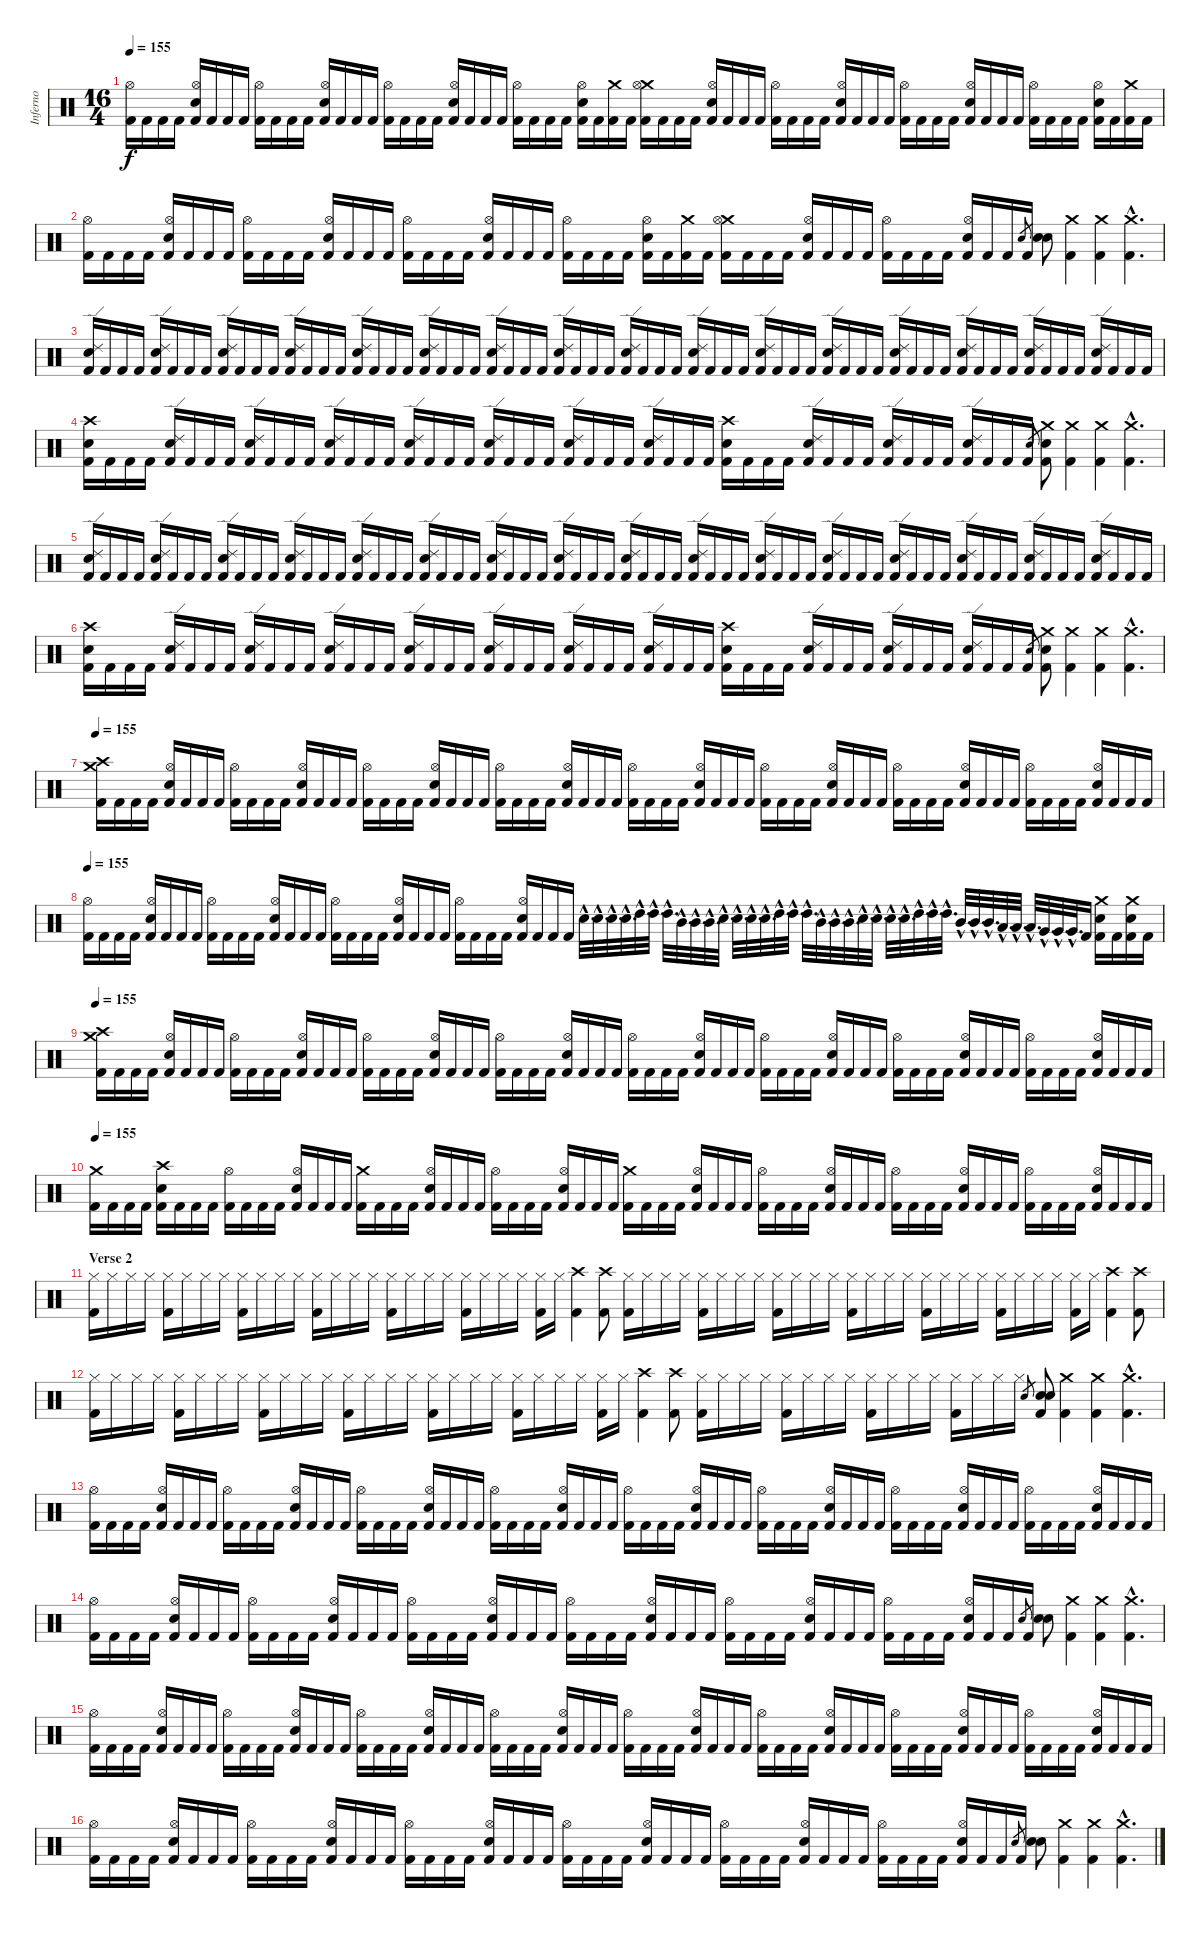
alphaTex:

\track ("Inferno" "Inferno") {instrument percussion}
\staff {score}
\articulation defaults
\ts (16 4)
\tempo 155
\clef neutral
\ks c
("Kick (hit) 2" "Hi-Hat (open)").16{dy f} "Kick (hit) 2".16 "Kick (hit) 2".16 "Kick (hit) 2".16 ("Kick (hit) 2" "Hi-Hat (open)" "Electric Snare (hit)").16 "Kick (hit) 2".16 "Kick (hit) 2".16 "Kick (hit) 2".16 ("Kick (hit) 2" "Hi-Hat (open)").16 "Kick (hit) 2".16 "Kick (hit) 2".16 "Kick (hit) 2".16 ("Kick (hit) 2" "Hi-Hat (open)" "Electric Snare (hit)").16 "Kick (hit) 2".16 "Kick (hit) 2".16 "Kick (hit) 2".16 ("Kick (hit) 2" "Hi-Hat (open)").16 "Kick (hit) 2".16 "Kick (hit) 2".16 "Kick (hit) 2".16 ("Kick (hit) 2" "Hi-Hat (open)" "Electric Snare (hit)").16 "Kick (hit) 2".16 "Kick (hit) 2".16 "Kick (hit) 2".16 ("Kick (hit) 2" "Hi-Hat (open)").16 "Kick (hit) 2".16 "Kick (hit) 2".16 "Kick (hit) 2".16 ("Kick (hit) 2" "Hi-Hat (open)" "Electric Snare (hit)").16 "Kick (hit) 2".16 ("Kick (hit) 2" "Crash medium (hit)").16 "Kick (hit) 2".16 ("Kick (hit) 2" "Crash medium (hit)" "Hi-Hat (open)").16 "Kick (hit) 2".16 "Kick (hit) 2".16 "Kick (hit) 2".16 ("Kick (hit) 2" "Hi-Hat (open)" "Electric Snare (hit)").16 "Kick (hit) 2".16 "Kick (hit) 2".16 "Kick (hit) 2".16 ("Kick (hit) 2" "Hi-Hat (open)").16 "Kick (hit) 2".16 "Kick (hit) 2".16 "Kick (hit) 2".16 ("Kick (hit) 2" "Hi-Hat (open)" "Electric Snare (hit)").16 "Kick (hit) 2".16 "Kick (hit) 2".16 "Kick (hit) 2".16 ("Kick (hit) 2" "Hi-Hat (open)").16 "Kick (hit) 2".16 "Kick (hit) 2".16 "Kick (hit) 2".16 ("Kick (hit) 2" "Hi-Hat (open)" "Electric Snare (hit)").16 "Kick (hit) 2".16 "Kick (hit) 2".16 "Kick (hit) 2".16 ("Kick (hit) 2" "Hi-Hat (open)").16 "Kick (hit) 2".16 "Kick (hit) 2".16 "Kick (hit) 2".16 ("Kick (hit) 2" "Hi-Hat (open)" "Electric Snare (hit)").16 "Kick (hit) 2".16 ("Kick (hit) 2" "Crash medium (hit)").16 "Kick (hit) 2".16 |
("Kick (hit) 2" "Hi-Hat (open)").16 "Kick (hit) 2".16 "Kick (hit) 2".16 "Kick (hit) 2".16 ("Kick (hit) 2" "Hi-Hat (open)" "Electric Snare (hit)").16 "Kick (hit) 2".16 "Kick (hit) 2".16 "Kick (hit) 2".16 ("Kick (hit) 2" "Hi-Hat (open)").16 "Kick (hit) 2".16 "Kick (hit) 2".16 "Kick (hit) 2".16 ("Kick (hit) 2" "Hi-Hat (open)" "Electric Snare (hit)").16 "Kick (hit) 2".16 "Kick (hit) 2".16 "Kick (hit) 2".16 ("Kick (hit) 2" "Hi-Hat (open)").16 "Kick (hit) 2".16 "Kick (hit) 2".16 "Kick (hit) 2".16 ("Kick (hit) 2" "Hi-Hat (open)" "Electric Snare (hit)").16 "Kick (hit) 2".16 "Kick (hit) 2".16 "Kick (hit) 2".16 ("Kick (hit) 2" "Hi-Hat (open)").16 "Kick (hit) 2".16 "Kick (hit) 2".16 "Kick (hit) 2".16 ("Kick (hit) 2" "Hi-Hat (open)" "Electric Snare (hit)").16 "Kick (hit) 2".16 ("Kick (hit) 2" "Crash medium (hit)").16 "Kick (hit) 2".16 ("Kick (hit) 2" "Crash medium (hit)" "Hi-Hat (open)").16 "Kick (hit) 2".16 "Kick (hit) 2".16 "Kick (hit) 2".16 ("Kick (hit) 2" "Hi-Hat (open)" "Electric Snare (hit)").16 "Kick (hit) 2".16 "Kick (hit) 2".16 "Kick (hit) 2".16 ("Kick (hit) 2" "Hi-Hat (open)").16 "Kick (hit) 2".16 "Kick (hit) 2".16 "Kick (hit) 2".16 ("Kick (hit) 2" "Hi-Hat (open)" "Electric Snare (hit)").16 "Kick (hit) 2".16 "Kick (hit) 2".16 "Kick (hit) 2".16 "Electric Snare (hit)".8{gr} ("Electric Snare (hit)" "Electric Snare (hit)").8 ("Crash medium (hit)" "Kick (hit) 2").4 ("Kick (hit) 2" "Crash medium (hit)").4 ("Kick (hit) 2"{hac} "Crash medium (hit)"{hac}).4{d} |
("Kick (hit) 2" "Electric Snare (hit)" "Ride (edge) 2").16 "Kick (hit) 2".16 "Kick (hit) 2".16 "Kick (hit) 2".16 ("Kick (hit) 2" "Ride (edge) 2" "Electric Snare (hit)").16 "Kick (hit) 2".16 "Kick (hit) 2".16 "Kick (hit) 2".16 ("Kick (hit) 2" "Electric Snare (hit)" "Ride (edge) 2").16 "Kick (hit) 2".16 "Kick (hit) 2".16 "Kick (hit) 2".16 ("Kick (hit) 2" "Ride (edge) 2" "Electric Snare (hit)").16 "Kick (hit) 2".16 "Kick (hit) 2".16 "Kick (hit) 2".16 ("Kick (hit) 2" "Electric Snare (hit)" "Ride (edge) 2").16 "Kick (hit) 2".16 "Kick (hit) 2".16 "Kick (hit) 2".16 ("Kick (hit) 2" "Ride (edge) 2" "Electric Snare (hit)").16 "Kick (hit) 2".16 "Kick (hit) 2".16 "Kick (hit) 2".16 ("Kick (hit) 2" "Electric Snare (hit)" "Ride (edge) 2").16 "Kick (hit) 2".16 "Kick (hit) 2".16 "Kick (hit) 2".16 ("Kick (hit) 2" "Ride (edge) 2" "Electric Snare (hit)").16 "Kick (hit) 2".16 "Kick (hit) 2".16 "Kick (hit) 2".16 ("Kick (hit) 2" "Electric Snare (hit)" "Ride (edge) 2").16 "Kick (hit) 2".16 "Kick (hit) 2".16 "Kick (hit) 2".16 ("Kick (hit) 2" "Ride (edge) 2" "Electric Snare (hit)").16 "Kick (hit) 2".16 "Kick (hit) 2".16 "Kick (hit) 2".16 ("Kick (hit) 2" "Electric Snare (hit)" "Ride (edge) 2").16 "Kick (hit) 2".16 "Kick (hit) 2".16 "Kick (hit) 2".16 ("Kick (hit) 2" "Ride (edge) 2" "Electric Snare (hit)").16 "Kick (hit) 2".16 "Kick (hit) 2".16 "Kick (hit) 2".16 ("Kick (hit) 2" "Electric Snare (hit)" "Ride (edge) 2").16 "Kick (hit) 2".16 "Kick (hit) 2".16 "Kick (hit) 2".16 ("Kick (hit) 2" "Ride (edge) 2" "Electric Snare (hit)").16 "Kick (hit) 2".16 "Kick (hit) 2".16 "Kick (hit) 2".16 ("Kick (hit) 2" "Electric Snare (hit)" "Ride (edge) 2").16 "Kick (hit) 2".16 "Kick (hit) 2".16 "Kick (hit) 2".16 ("Kick (hit) 2" "Ride (edge) 2" "Electric Snare (hit)").16 "Kick (hit) 2".16 "Kick (hit) 2".16 "Kick (hit) 2".16 |
("Kick (hit) 2" "Electric Snare (hit)" "Crash high (hit)").16 "Kick (hit) 2".16 "Kick (hit) 2".16 "Kick (hit) 2".16 ("Kick (hit) 2" "Ride (edge) 2" "Electric Snare (hit)").16 "Kick (hit) 2".16 "Kick (hit) 2".16 "Kick (hit) 2".16 ("Kick (hit) 2" "Electric Snare (hit)" "Ride (edge) 2").16 "Kick (hit) 2".16 "Kick (hit) 2".16 "Kick (hit) 2".16 ("Kick (hit) 2" "Ride (edge) 2" "Electric Snare (hit)").16 "Kick (hit) 2".16 "Kick (hit) 2".16 "Kick (hit) 2".16 ("Kick (hit) 2" "Electric Snare (hit)" "Ride (edge) 2").16 "Kick (hit) 2".16 "Kick (hit) 2".16 "Kick (hit) 2".16 ("Kick (hit) 2" "Ride (edge) 2" "Electric Snare (hit)").16 "Kick (hit) 2".16 "Kick (hit) 2".16 "Kick (hit) 2".16 ("Kick (hit) 2" "Electric Snare (hit)" "Ride (edge) 2").16 "Kick (hit) 2".16 "Kick (hit) 2".16 "Kick (hit) 2".16 ("Kick (hit) 2" "Ride (edge) 2" "Electric Snare (hit)").16 "Kick (hit) 2".16 "Kick (hit) 2".16 "Kick (hit) 2".16 ("Kick (hit) 2" "Electric Snare (hit)" "Crash high (hit)").16 "Kick (hit) 2".16 "Kick (hit) 2".16 "Kick (hit) 2".16 ("Kick (hit) 2" "Ride (edge) 2" "Electric Snare (hit)").16 "Kick (hit) 2".16 "Kick (hit) 2".16 "Kick (hit) 2".16 ("Kick (hit) 2" "Electric Snare (hit)" "Ride (edge) 2").16 "Kick (hit) 2".16 "Kick (hit) 2".16 "Kick (hit) 2".16 ("Kick (hit) 2" "Ride (edge) 2" "Electric Snare (hit)").16 "Kick (hit) 2".16 "Kick (hit) 2".16 "Kick (hit) 2".16 "Electric Snare (hit)".8{gr} ("Crash medium (hit)" "Electric Snare (hit)" "Kick (hit) 2").8 ("Crash medium (hit)" "Kick (hit) 2").4 ("Crash medium (hit)" "Kick (hit) 2").4 ("Crash medium (hit)"{hac} "Kick (hit) 2"{hac}).4{d} |
("Kick (hit) 2" "Electric Snare (hit)" "Ride (edge) 2").16 "Kick (hit) 2".16 "Kick (hit) 2".16 "Kick (hit) 2".16 ("Kick (hit) 2" "Ride (edge) 2" "Electric Snare (hit)").16 "Kick (hit) 2".16 "Kick (hit) 2".16 "Kick (hit) 2".16 ("Kick (hit) 2" "Electric Snare (hit)" "Ride (edge) 2").16 "Kick (hit) 2".16 "Kick (hit) 2".16 "Kick (hit) 2".16 ("Kick (hit) 2" "Ride (edge) 2" "Electric Snare (hit)").16 "Kick (hit) 2".16 "Kick (hit) 2".16 "Kick (hit) 2".16 ("Kick (hit) 2" "Electric Snare (hit)" "Ride (edge) 2").16 "Kick (hit) 2".16 "Kick (hit) 2".16 "Kick (hit) 2".16 ("Kick (hit) 2" "Ride (edge) 2" "Electric Snare (hit)").16 "Kick (hit) 2".16 "Kick (hit) 2".16 "Kick (hit) 2".16 ("Kick (hit) 2" "Electric Snare (hit)" "Ride (edge) 2").16 "Kick (hit) 2".16 "Kick (hit) 2".16 "Kick (hit) 2".16 ("Kick (hit) 2" "Ride (edge) 2" "Electric Snare (hit)").16 "Kick (hit) 2".16 "Kick (hit) 2".16 "Kick (hit) 2".16 ("Kick (hit) 2" "Electric Snare (hit)" "Ride (edge) 2").16 "Kick (hit) 2".16 "Kick (hit) 2".16 "Kick (hit) 2".16 ("Kick (hit) 2" "Ride (edge) 2" "Electric Snare (hit)").16 "Kick (hit) 2".16 "Kick (hit) 2".16 "Kick (hit) 2".16 ("Kick (hit) 2" "Electric Snare (hit)" "Ride (edge) 2").16 "Kick (hit) 2".16 "Kick (hit) 2".16 "Kick (hit) 2".16 ("Kick (hit) 2" "Ride (edge) 2" "Electric Snare (hit)").16 "Kick (hit) 2".16 "Kick (hit) 2".16 "Kick (hit) 2".16 ("Kick (hit) 2" "Electric Snare (hit)" "Ride (edge) 2").16 "Kick (hit) 2".16 "Kick (hit) 2".16 "Kick (hit) 2".16 ("Kick (hit) 2" "Ride (edge) 2" "Electric Snare (hit)").16 "Kick (hit) 2".16 "Kick (hit) 2".16 "Kick (hit) 2".16 ("Kick (hit) 2" "Electric Snare (hit)" "Ride (edge) 2").16 "Kick (hit) 2".16 "Kick (hit) 2".16 "Kick (hit) 2".16 ("Kick (hit) 2" "Ride (edge) 2" "Electric Snare (hit)").16 "Kick (hit) 2".16 "Kick (hit) 2".16 "Kick (hit) 2".16 |
("Kick (hit) 2" "Electric Snare (hit)" "Crash high (hit)").16 "Kick (hit) 2".16 "Kick (hit) 2".16 "Kick (hit) 2".16 ("Kick (hit) 2" "Ride (edge) 2" "Electric Snare (hit)").16 "Kick (hit) 2".16 "Kick (hit) 2".16 "Kick (hit) 2".16 ("Kick (hit) 2" "Electric Snare (hit)" "Ride (edge) 2").16 "Kick (hit) 2".16 "Kick (hit) 2".16 "Kick (hit) 2".16 ("Kick (hit) 2" "Ride (edge) 2" "Electric Snare (hit)").16 "Kick (hit) 2".16 "Kick (hit) 2".16 "Kick (hit) 2".16 ("Kick (hit) 2" "Electric Snare (hit)" "Ride (edge) 2").16 "Kick (hit) 2".16 "Kick (hit) 2".16 "Kick (hit) 2".16 ("Kick (hit) 2" "Ride (edge) 2" "Electric Snare (hit)").16 "Kick (hit) 2".16 "Kick (hit) 2".16 "Kick (hit) 2".16 ("Kick (hit) 2" "Electric Snare (hit)" "Ride (edge) 2").16 "Kick (hit) 2".16 "Kick (hit) 2".16 "Kick (hit) 2".16 ("Kick (hit) 2" "Ride (edge) 2" "Electric Snare (hit)").16 "Kick (hit) 2".16 "Kick (hit) 2".16 "Kick (hit) 2".16 ("Kick (hit) 2" "Electric Snare (hit)" "Crash high (hit)").16 "Kick (hit) 2".16 "Kick (hit) 2".16 "Kick (hit) 2".16 ("Kick (hit) 2" "Ride (edge) 2" "Electric Snare (hit)").16 "Kick (hit) 2".16 "Kick (hit) 2".16 "Kick (hit) 2".16 ("Kick (hit) 2" "Electric Snare (hit)" "Ride (edge) 2").16 "Kick (hit) 2".16 "Kick (hit) 2".16 "Kick (hit) 2".16 ("Kick (hit) 2" "Ride (edge) 2" "Electric Snare (hit)").16 "Kick (hit) 2".16 "Kick (hit) 2".16 "Kick (hit) 2".16 "Electric Snare (hit)".8{gr} ("Crash medium (hit)" "Electric Snare (hit)" "Kick (hit) 2").8 ("Crash medium (hit)" "Kick (hit) 2").4 ("Crash medium (hit)" "Kick (hit) 2").4 ("Crash medium (hit)"{hac} "Kick (hit) 2"{hac}).4{d} |
\tempo 155
("Kick (hit) 2" "Crash medium (hit)" "Crash high (hit)").16 "Kick (hit) 2".16 "Kick (hit) 2".16 "Kick (hit) 2".16 ("Kick (hit) 2" "Hi-Hat (open)" "Electric Snare (hit)").16 "Kick (hit) 2".16 "Kick (hit) 2".16 "Kick (hit) 2".16 ("Kick (hit) 2" "Hi-Hat (open)").16 "Kick (hit) 2".16 "Kick (hit) 2".16 "Kick (hit) 2".16 ("Kick (hit) 2" "Hi-Hat (open)" "Electric Snare (hit)").16 "Kick (hit) 2".16 "Kick (hit) 2".16 "Kick (hit) 2".16 ("Kick (hit) 2" "Hi-Hat (open)").16 "Kick (hit) 2".16 "Kick (hit) 2".16 "Kick (hit) 2".16 ("Kick (hit) 2" "Hi-Hat (open)" "Electric Snare (hit)").16 "Kick (hit) 2".16 "Kick (hit) 2".16 "Kick (hit) 2".16 ("Kick (hit) 2" "Hi-Hat (open)").16 "Kick (hit) 2".16 "Kick (hit) 2".16 "Kick (hit) 2".16 ("Kick (hit) 2" "Hi-Hat (open)" "Electric Snare (hit)").16 "Kick (hit) 2".16 "Kick (hit) 2".16 "Kick (hit) 2".16 ("Kick (hit) 2" "Hi-Hat (open)").16 "Kick (hit) 2".16 "Kick (hit) 2".16 "Kick (hit) 2".16 ("Kick (hit) 2" "Hi-Hat (open)" "Electric Snare (hit)").16 "Kick (hit) 2".16 "Kick (hit) 2".16 "Kick (hit) 2".16 ("Kick (hit) 2" "Hi-Hat (open)").16 "Kick (hit) 2".16 "Kick (hit) 2".16 "Kick (hit) 2".16 ("Kick (hit) 2" "Hi-Hat (open)" "Electric Snare (hit)").16 "Kick (hit) 2".16 "Kick (hit) 2".16 "Kick (hit) 2".16 ("Kick (hit) 2" "Hi-Hat (open)").16 "Kick (hit) 2".16 "Kick (hit) 2".16 "Kick (hit) 2".16 ("Kick (hit) 2" "Hi-Hat (open)" "Electric Snare (hit)").16 "Kick (hit) 2".16 "Kick (hit) 2".16 "Kick (hit) 2".16 ("Kick (hit) 2" "Hi-Hat (open)").16 "Kick (hit) 2".16 "Kick (hit) 2".16 "Kick (hit) 2".16 ("Kick (hit) 2" "Hi-Hat (open)" "Electric Snare (hit)").16 "Kick (hit) 2".16 "Kick (hit) 2".16 "Kick (hit) 2".16 |
\tempo 155
("Kick (hit) 2" "Hi-Hat (open)").16 "Kick (hit) 2".16 "Kick (hit) 2".16 "Kick (hit) 2".16 ("Kick (hit) 2" "Hi-Hat (open)" "Electric Snare (hit)").16 "Kick (hit) 2".16 "Kick (hit) 2".16 "Kick (hit) 2".16 ("Kick (hit) 2" "Hi-Hat (open)").16 "Kick (hit) 2".16 "Kick (hit) 2".16 "Kick (hit) 2".16 ("Kick (hit) 2" "Hi-Hat (open)" "Electric Snare (hit)").16 "Kick (hit) 2".16 "Kick (hit) 2".16 "Kick (hit) 2".16 ("Kick (hit) 2" "Hi-Hat (open)").16 "Kick (hit) 2".16 "Kick (hit) 2".16 "Kick (hit) 2".16 ("Kick (hit) 2" "Hi-Hat (open)" "Electric Snare (hit)").16 "Kick (hit) 2".16 "Kick (hit) 2".16 "Kick (hit) 2".16 ("Kick (hit) 2" "Hi-Hat (open)").16 "Kick (hit) 2".16 "Kick (hit) 2".16 "Kick (hit) 2".16 ("Kick (hit) 2" "Hi-Hat (open)" "Electric Snare (hit)").16 "Kick (hit) 2".16 "Kick (hit) 2".16 "Kick (hit) 2".16 "Electric Snare (hit)"{hac}.32{d} "Electric Snare (hit)"{hac}.32{d} "Electric Snare (hit)"{hac}.32{d} "Electric Snare (hit)"{hac}.32{d} "High Tom (hit)"{hac}.32{d} "High Tom (hit)"{hac}.32{d} "High Tom (hit)"{hac}.32{d} "Mid Tom (hit)"{hac}.32{d} "Mid Tom (hit)"{hac}.32{d} "Mid Tom (hit)"{hac}.32{d} "Electric Snare (hit)"{hac}.32{d} "Electric Snare (hit)"{hac}.32{d} "Electric Snare (hit)"{hac}.32{d} "Electric Snare (hit)"{hac}.32{d} "High Tom (hit)"{hac}.32{d} "High Tom (hit)"{hac}.32{d} "High Tom (hit)"{hac}.32{d} "Mid Tom (hit)"{hac}.32{d} "Mid Tom (hit)"{hac}.32{d} "Mid Tom (hit)"{hac}.32{d} "Electric Snare (hit)"{hac}.32{d} "Electric Snare (hit)"{hac}.32{d} "Electric Snare (hit)"{hac}.32{d} "Electric Snare (hit)"{hac}.32{d} "High Tom (hit)"{hac}.32{d} "High Tom (hit)"{hac}.32{d} "High Tom (hit)"{hac}.32{d} "Mid Tom (hit)"{hac}.32{d} "Mid Tom (hit)"{hac}.32{d} "Mid Tom (hit)"{hac}.32{d} "Low Tom (hit)"{hac}.32{d} "Low Tom (hit)"{hac}.32{d} "Low Tom (hit)"{hac}.32{d} "Very Low Tom (hit)"{hac}.32{d} "Very Low Tom (hit)"{hac}.32{d} "Very Low Tom (hit)"{hac}.32{d} "Kick (hit) 2".16 ("Electric Snare (hit)" "Crash medium (hit)" "Kick (hit) 2").16 "Kick (hit) 2".16 ("Electric Snare (hit)" "Crash medium (hit)" "Kick (hit) 2").16 "Kick (hit) 2".16 |
\tempo 155
("Kick (hit) 2" "Crash medium (hit)" "Crash high (hit)").16 "Kick (hit) 2".16 "Kick (hit) 2".16 "Kick (hit) 2".16 ("Kick (hit) 2" "Hi-Hat (open)" "Electric Snare (hit)").16 "Kick (hit) 2".16 "Kick (hit) 2".16 "Kick (hit) 2".16 ("Kick (hit) 2" "Hi-Hat (open)").16 "Kick (hit) 2".16 "Kick (hit) 2".16 "Kick (hit) 2".16 ("Kick (hit) 2" "Hi-Hat (open)" "Electric Snare (hit)").16 "Kick (hit) 2".16 "Kick (hit) 2".16 "Kick (hit) 2".16 ("Kick (hit) 2" "Hi-Hat (open)").16 "Kick (hit) 2".16 "Kick (hit) 2".16 "Kick (hit) 2".16 ("Kick (hit) 2" "Hi-Hat (open)" "Electric Snare (hit)").16 "Kick (hit) 2".16 "Kick (hit) 2".16 "Kick (hit) 2".16 ("Kick (hit) 2" "Hi-Hat (open)").16 "Kick (hit) 2".16 "Kick (hit) 2".16 "Kick (hit) 2".16 ("Kick (hit) 2" "Hi-Hat (open)" "Electric Snare (hit)").16 "Kick (hit) 2".16 "Kick (hit) 2".16 "Kick (hit) 2".16 ("Kick (hit) 2" "Hi-Hat (open)").16 "Kick (hit) 2".16 "Kick (hit) 2".16 "Kick (hit) 2".16 ("Kick (hit) 2" "Hi-Hat (open)" "Electric Snare (hit)").16 "Kick (hit) 2".16 "Kick (hit) 2".16 "Kick (hit) 2".16 ("Kick (hit) 2" "Hi-Hat (open)").16 "Kick (hit) 2".16 "Kick (hit) 2".16 "Kick (hit) 2".16 ("Kick (hit) 2" "Hi-Hat (open)" "Electric Snare (hit)").16 "Kick (hit) 2".16 "Kick (hit) 2".16 "Kick (hit) 2".16 ("Kick (hit) 2" "Hi-Hat (open)").16 "Kick (hit) 2".16 "Kick (hit) 2".16 "Kick (hit) 2".16 ("Kick (hit) 2" "Hi-Hat (open)" "Electric Snare (hit)").16 "Kick (hit) 2".16 "Kick (hit) 2".16 "Kick (hit) 2".16 ("Kick (hit) 2" "Hi-Hat (open)").16 "Kick (hit) 2".16 "Kick (hit) 2".16 "Kick (hit) 2".16 ("Kick (hit) 2" "Hi-Hat (open)" "Electric Snare (hit)").16 "Kick (hit) 2".16 "Kick (hit) 2".16 "Kick (hit) 2".16 |
\tempo 155
("Kick (hit) 2" "Crash medium (hit)").16 "Kick (hit) 2".16 "Kick (hit) 2".16 "Kick (hit) 2".16 ("Kick (hit) 2" "Crash high (hit)" "Electric Snare (hit)").16 "Kick (hit) 2".16 "Kick (hit) 2".16 "Kick (hit) 2".16 ("Kick (hit) 2" "Hi-Hat (open)").16 "Kick (hit) 2".16 "Kick (hit) 2".16 "Kick (hit) 2".16 ("Kick (hit) 2" "Hi-Hat (open)" "Electric Snare (hit)").16 "Kick (hit) 2".16 "Kick (hit) 2".16 "Kick (hit) 2".16 ("Kick (hit) 2" "Crash medium (hit)").16 "Kick (hit) 2".16 "Kick (hit) 2".16 "Kick (hit) 2".16 ("Kick (hit) 2" "Hi-Hat (open)" "Electric Snare (hit)").16 "Kick (hit) 2".16 "Kick (hit) 2".16 "Kick (hit) 2".16 ("Kick (hit) 2" "Hi-Hat (open)").16 "Kick (hit) 2".16 "Kick (hit) 2".16 "Kick (hit) 2".16 ("Kick (hit) 2" "Hi-Hat (open)" "Electric Snare (hit)").16 "Kick (hit) 2".16 "Kick (hit) 2".16 "Kick (hit) 2".16 ("Kick (hit) 2" "Crash medium (hit)").16 "Kick (hit) 2".16 "Kick (hit) 2".16 "Kick (hit) 2".16 ("Kick (hit) 2" "Hi-Hat (open)" "Electric Snare (hit)").16 "Kick (hit) 2".16 "Kick (hit) 2".16 "Kick (hit) 2".16 ("Kick (hit) 2" "Hi-Hat (open)").16 "Kick (hit) 2".16 "Kick (hit) 2".16 "Kick (hit) 2".16 ("Kick (hit) 2" "Hi-Hat (open)" "Electric Snare (hit)").16 "Kick (hit) 2".16 "Kick (hit) 2".16 "Kick (hit) 2".16 ("Kick (hit) 2" "Hi-Hat (open)").16 "Kick (hit) 2".16 "Kick (hit) 2".16 "Kick (hit) 2".16 ("Kick (hit) 2" "Hi-Hat (open)" "Electric Snare (hit)").16 "Kick (hit) 2".16 "Kick (hit) 2".16 "Kick (hit) 2".16 ("Kick (hit) 2" "Hi-Hat (open)").16 "Kick (hit) 2".16 "Kick (hit) 2".16 "Kick (hit) 2".16 ("Kick (hit) 2" "Hi-Hat (open)" "Electric Snare (hit)").16 "Kick (hit) 2".16 "Kick (hit) 2".16 "Kick (hit) 2".16 |
\section ("" "Verse 2")
("Hi-Hat (closed)" "Kick (hit) 2").16 "Hi-Hat (closed)".16 "Hi-Hat (closed)".16 "Hi-Hat (closed)".16 ("Hi-Hat (closed)" "Kick (hit) 2").16 "Hi-Hat (closed)".16 "Hi-Hat (closed)".16 "Hi-Hat (closed)".16 ("Hi-Hat (closed)" "Kick (hit) 2").16 "Hi-Hat (closed)".16 "Hi-Hat (closed)".16 "Hi-Hat (closed)".16 ("Hi-Hat (closed)" "Kick (hit) 2").16 "Hi-Hat (closed)".16 "Hi-Hat (closed)".16 "Hi-Hat (closed)".16 ("Hi-Hat (closed)" "Kick (hit) 2").16 "Hi-Hat (closed)".16 "Hi-Hat (closed)".16 "Hi-Hat (closed)".16 ("Hi-Hat (closed)" "Kick (hit) 2").16 "Hi-Hat (closed)".16 "Hi-Hat (closed)".16 "Hi-Hat (closed)".16 ("Hi-Hat (closed)" "Kick (hit) 2").16 "Hi-Hat (closed)".16 ("Crash high (hit)" "Kick (hit) 2").4 ("Crash high (hit)" "Kick (hit) 2").8 ("Hi-Hat (closed)" "Kick (hit) 2").16 "Hi-Hat (closed)".16 "Hi-Hat (closed)".16 "Hi-Hat (closed)".16 ("Hi-Hat (closed)" "Kick (hit) 2").16 "Hi-Hat (closed)".16 "Hi-Hat (closed)".16 "Hi-Hat (closed)".16 ("Hi-Hat (closed)" "Kick (hit) 2").16 "Hi-Hat (closed)".16 "Hi-Hat (closed)".16 "Hi-Hat (closed)".16 ("Hi-Hat (closed)" "Kick (hit) 2").16 "Hi-Hat (closed)".16 "Hi-Hat (closed)".16 "Hi-Hat (closed)".16 ("Hi-Hat (closed)" "Kick (hit) 2").16 "Hi-Hat (closed)".16 "Hi-Hat (closed)".16 "Hi-Hat (closed)".16 ("Hi-Hat (closed)" "Kick (hit) 2").16 "Hi-Hat (closed)".16 "Hi-Hat (closed)".16 "Hi-Hat (closed)".16 ("Hi-Hat (closed)" "Kick (hit) 2").16 "Hi-Hat (closed)".16 ("Crash high (hit)" "Kick (hit) 2").4 ("Crash high (hit)" "Kick (hit) 2").8 |
("Hi-Hat (closed)" "Kick (hit) 2").16 "Hi-Hat (closed)".16 "Hi-Hat (closed)".16 "Hi-Hat (closed)".16 ("Hi-Hat (closed)" "Kick (hit) 2").16 "Hi-Hat (closed)".16 "Hi-Hat (closed)".16 "Hi-Hat (closed)".16 ("Hi-Hat (closed)" "Kick (hit) 2").16 "Hi-Hat (closed)".16 "Hi-Hat (closed)".16 "Hi-Hat (closed)".16 ("Hi-Hat (closed)" "Kick (hit) 2").16 "Hi-Hat (closed)".16 "Hi-Hat (closed)".16 "Hi-Hat (closed)".16 ("Hi-Hat (closed)" "Kick (hit) 2").16 "Hi-Hat (closed)".16 "Hi-Hat (closed)".16 "Hi-Hat (closed)".16 ("Hi-Hat (closed)" "Kick (hit) 2").16 "Hi-Hat (closed)".16 "Hi-Hat (closed)".16 "Hi-Hat (closed)".16 ("Hi-Hat (closed)" "Kick (hit) 2").16 "Hi-Hat (closed)".16 ("Crash high (hit)" "Kick (hit) 2").4 ("Crash high (hit)" "Kick (hit) 2").8 ("Hi-Hat (closed)" "Kick (hit) 2").16 "Hi-Hat (closed)".16 "Hi-Hat (closed)".16 "Hi-Hat (closed)".16 ("Hi-Hat (closed)" "Kick (hit) 2").16 "Hi-Hat (closed)".16 "Hi-Hat (closed)".16 "Hi-Hat (closed)".16 ("Hi-Hat (closed)" "Kick (hit) 2").16 "Hi-Hat (closed)".16 "Hi-Hat (closed)".16 "Hi-Hat (closed)".16 ("Hi-Hat (closed)" "Kick (hit) 2").16 "Hi-Hat (closed)".16 "Hi-Hat (closed)".16 "Hi-Hat (closed)".16 "Electric Snare (hit)".8{gr} ("Electric Snare (hit)" "Electric Snare (hit)" "Kick (hit) 2").8 ("Crash medium (hit)" "Kick (hit) 2").4 ("Crash medium (hit)" "Kick (hit) 2").4 ("Crash medium (hit)"{hac} "Kick (hit) 2"{hac}).4{d} |
("Kick (hit) 2" "Hi-Hat (open)").16 "Kick (hit) 2".16 "Kick (hit) 2".16 "Kick (hit) 2".16 ("Kick (hit) 2" "Hi-Hat (open)" "Electric Snare (hit)").16 "Kick (hit) 2".16 "Kick (hit) 2".16 "Kick (hit) 2".16 ("Kick (hit) 2" "Hi-Hat (open)").16 "Kick (hit) 2".16 "Kick (hit) 2".16 "Kick (hit) 2".16 ("Kick (hit) 2" "Hi-Hat (open)" "Electric Snare (hit)").16 "Kick (hit) 2".16 "Kick (hit) 2".16 "Kick (hit) 2".16 ("Kick (hit) 2" "Hi-Hat (open)").16 "Kick (hit) 2".16 "Kick (hit) 2".16 "Kick (hit) 2".16 ("Kick (hit) 2" "Hi-Hat (open)" "Electric Snare (hit)").16 "Kick (hit) 2".16 "Kick (hit) 2".16 "Kick (hit) 2".16 ("Kick (hit) 2" "Hi-Hat (open)").16 "Kick (hit) 2".16 "Kick (hit) 2".16 "Kick (hit) 2".16 ("Kick (hit) 2" "Hi-Hat (open)" "Electric Snare (hit)").16 "Kick (hit) 2".16 "Kick (hit) 2".16 "Kick (hit) 2".16 ("Kick (hit) 2" "Hi-Hat (open)").16 "Kick (hit) 2".16 "Kick (hit) 2".16 "Kick (hit) 2".16 ("Kick (hit) 2" "Hi-Hat (open)" "Electric Snare (hit)").16 "Kick (hit) 2".16 "Kick (hit) 2".16 "Kick (hit) 2".16 ("Kick (hit) 2" "Hi-Hat (open)").16 "Kick (hit) 2".16 "Kick (hit) 2".16 "Kick (hit) 2".16 ("Kick (hit) 2" "Hi-Hat (open)" "Electric Snare (hit)").16 "Kick (hit) 2".16 "Kick (hit) 2".16 "Kick (hit) 2".16 ("Kick (hit) 2" "Hi-Hat (open)").16 "Kick (hit) 2".16 "Kick (hit) 2".16 "Kick (hit) 2".16 ("Kick (hit) 2" "Hi-Hat (open)" "Electric Snare (hit)").16 "Kick (hit) 2".16 "Kick (hit) 2".16 "Kick (hit) 2".16 ("Kick (hit) 2" "Hi-Hat (open)").16 "Kick (hit) 2".16 "Kick (hit) 2".16 "Kick (hit) 2".16 ("Kick (hit) 2" "Hi-Hat (open)" "Electric Snare (hit)").16 "Kick (hit) 2".16 "Kick (hit) 2".16 "Kick (hit) 2".16 |
("Kick (hit) 2" "Hi-Hat (open)").16 "Kick (hit) 2".16 "Kick (hit) 2".16 "Kick (hit) 2".16 ("Kick (hit) 2" "Hi-Hat (open)" "Electric Snare (hit)").16 "Kick (hit) 2".16 "Kick (hit) 2".16 "Kick (hit) 2".16 ("Kick (hit) 2" "Hi-Hat (open)").16 "Kick (hit) 2".16 "Kick (hit) 2".16 "Kick (hit) 2".16 ("Kick (hit) 2" "Hi-Hat (open)" "Electric Snare (hit)").16 "Kick (hit) 2".16 "Kick (hit) 2".16 "Kick (hit) 2".16 ("Kick (hit) 2" "Hi-Hat (open)").16 "Kick (hit) 2".16 "Kick (hit) 2".16 "Kick (hit) 2".16 ("Kick (hit) 2" "Hi-Hat (open)" "Electric Snare (hit)").16 "Kick (hit) 2".16 "Kick (hit) 2".16 "Kick (hit) 2".16 ("Kick (hit) 2" "Hi-Hat (open)").16 "Kick (hit) 2".16 "Kick (hit) 2".16 "Kick (hit) 2".16 ("Kick (hit) 2" "Hi-Hat (open)" "Electric Snare (hit)").16 "Kick (hit) 2".16 "Kick (hit) 2".16 "Kick (hit) 2".16 ("Kick (hit) 2" "Hi-Hat (open)").16 "Kick (hit) 2".16 "Kick (hit) 2".16 "Kick (hit) 2".16 ("Kick (hit) 2" "Hi-Hat (open)" "Electric Snare (hit)").16 "Kick (hit) 2".16 "Kick (hit) 2".16 "Kick (hit) 2".16 ("Kick (hit) 2" "Hi-Hat (open)").16 "Kick (hit) 2".16 "Kick (hit) 2".16 "Kick (hit) 2".16 ("Kick (hit) 2" "Hi-Hat (open)" "Electric Snare (hit)").16 "Kick (hit) 2".16 "Kick (hit) 2".16 "Kick (hit) 2".16 "Electric Snare (hit)".8{gr} ("Electric Snare (hit)" "Electric Snare (hit)").8 ("Crash medium (hit)" "Kick (hit) 2").4 ("Kick (hit) 2" "Crash medium (hit)").4 ("Kick (hit) 2"{hac} "Crash medium (hit)"{hac}).4{d} |
("Kick (hit) 2" "Hi-Hat (open)").16 "Kick (hit) 2".16 "Kick (hit) 2".16 "Kick (hit) 2".16 ("Kick (hit) 2" "Hi-Hat (open)" "Electric Snare (hit)").16 "Kick (hit) 2".16 "Kick (hit) 2".16 "Kick (hit) 2".16 ("Kick (hit) 2" "Hi-Hat (open)").16 "Kick (hit) 2".16 "Kick (hit) 2".16 "Kick (hit) 2".16 ("Kick (hit) 2" "Hi-Hat (open)" "Electric Snare (hit)").16 "Kick (hit) 2".16 "Kick (hit) 2".16 "Kick (hit) 2".16 ("Kick (hit) 2" "Hi-Hat (open)").16 "Kick (hit) 2".16 "Kick (hit) 2".16 "Kick (hit) 2".16 ("Kick (hit) 2" "Hi-Hat (open)" "Electric Snare (hit)").16 "Kick (hit) 2".16 "Kick (hit) 2".16 "Kick (hit) 2".16 ("Kick (hit) 2" "Hi-Hat (open)").16 "Kick (hit) 2".16 "Kick (hit) 2".16 "Kick (hit) 2".16 ("Kick (hit) 2" "Hi-Hat (open)" "Electric Snare (hit)").16 "Kick (hit) 2".16 "Kick (hit) 2".16 "Kick (hit) 2".16 ("Kick (hit) 2" "Hi-Hat (open)").16 "Kick (hit) 2".16 "Kick (hit) 2".16 "Kick (hit) 2".16 ("Kick (hit) 2" "Hi-Hat (open)" "Electric Snare (hit)").16 "Kick (hit) 2".16 "Kick (hit) 2".16 "Kick (hit) 2".16 ("Kick (hit) 2" "Hi-Hat (open)").16 "Kick (hit) 2".16 "Kick (hit) 2".16 "Kick (hit) 2".16 ("Kick (hit) 2" "Hi-Hat (open)" "Electric Snare (hit)").16 "Kick (hit) 2".16 "Kick (hit) 2".16 "Kick (hit) 2".16 ("Kick (hit) 2" "Hi-Hat (open)").16 "Kick (hit) 2".16 "Kick (hit) 2".16 "Kick (hit) 2".16 ("Kick (hit) 2" "Hi-Hat (open)" "Electric Snare (hit)").16 "Kick (hit) 2".16 "Kick (hit) 2".16 "Kick (hit) 2".16 ("Kick (hit) 2" "Hi-Hat (open)").16 "Kick (hit) 2".16 "Kick (hit) 2".16 "Kick (hit) 2".16 ("Kick (hit) 2" "Hi-Hat (open)" "Electric Snare (hit)").16 "Kick (hit) 2".16 "Kick (hit) 2".16 "Kick (hit) 2".16 |
("Kick (hit) 2" "Hi-Hat (open)").16 "Kick (hit) 2".16 "Kick (hit) 2".16 "Kick (hit) 2".16 ("Kick (hit) 2" "Hi-Hat (open)" "Electric Snare (hit)").16 "Kick (hit) 2".16 "Kick (hit) 2".16 "Kick (hit) 2".16 ("Kick (hit) 2" "Hi-Hat (open)").16 "Kick (hit) 2".16 "Kick (hit) 2".16 "Kick (hit) 2".16 ("Kick (hit) 2" "Hi-Hat (open)" "Electric Snare (hit)").16 "Kick (hit) 2".16 "Kick (hit) 2".16 "Kick (hit) 2".16 ("Kick (hit) 2" "Hi-Hat (open)").16 "Kick (hit) 2".16 "Kick (hit) 2".16 "Kick (hit) 2".16 ("Kick (hit) 2" "Hi-Hat (open)" "Electric Snare (hit)").16 "Kick (hit) 2".16 "Kick (hit) 2".16 "Kick (hit) 2".16 ("Kick (hit) 2" "Hi-Hat (open)").16 "Kick (hit) 2".16 "Kick (hit) 2".16 "Kick (hit) 2".16 ("Kick (hit) 2" "Hi-Hat (open)" "Electric Snare (hit)").16 "Kick (hit) 2".16 "Kick (hit) 2".16 "Kick (hit) 2".16 ("Kick (hit) 2" "Hi-Hat (open)").16 "Kick (hit) 2".16 "Kick (hit) 2".16 "Kick (hit) 2".16 ("Kick (hit) 2" "Hi-Hat (open)" "Electric Snare (hit)").16 "Kick (hit) 2".16 "Kick (hit) 2".16 "Kick (hit) 2".16 ("Kick (hit) 2" "Hi-Hat (open)").16 "Kick (hit) 2".16 "Kick (hit) 2".16 "Kick (hit) 2".16 ("Kick (hit) 2" "Hi-Hat (open)" "Electric Snare (hit)").16 "Kick (hit) 2".16 "Kick (hit) 2".16 "Kick (hit) 2".16 "Electric Snare (hit)".8{gr} ("Electric Snare (hit)" "Electric Snare (hit)").8 ("Crash medium (hit)" "Kick (hit) 2").4 ("Kick (hit) 2" "Crash medium (hit)").4 ("Kick (hit) 2"{hac} "Crash medium (hit)"{hac}).4{d}
